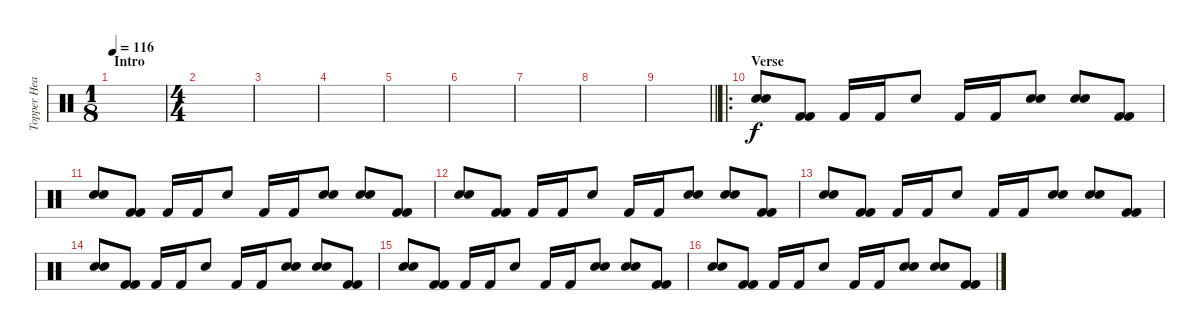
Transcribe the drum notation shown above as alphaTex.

\track ("Topper Headon - Percussion" "Topper Hea") {instrument percussion}
\staff {score}
\articulation defaults
\ts (1 8)
\section ("" "Intro")
\tempo 116
\clef neutral
\ks c
|
\ts (4 4)
|
|
|
|
|
|
|
\barLineRight lightlight
|
\ro
\section ("" "Verse")
("Snare (hit) 2" "Snare (hit) 2").8 ("Kick (hit) 2" "Kick (hit) 2").8 "Kick (hit) 2".16 "Kick (hit) 2".16 "Snare (hit) 2".8 "Kick (hit) 2".16 "Kick (hit) 2".16 ("Snare (hit) 2" "Snare (hit) 2").8 ("Snare (hit) 2" "Snare (hit) 2").8 ("Kick (hit) 2" "Kick (hit) 2").8 |
("Snare (hit) 2" "Snare (hit) 2").8 ("Kick (hit) 2" "Kick (hit) 2").8 "Kick (hit) 2".16 "Kick (hit) 2".16 "Snare (hit) 2".8 "Kick (hit) 2".16 "Kick (hit) 2".16 ("Snare (hit) 2" "Snare (hit) 2").8 ("Snare (hit) 2" "Snare (hit) 2").8 ("Kick (hit) 2" "Kick (hit) 2").8 |
("Snare (hit) 2" "Snare (hit) 2").8 ("Kick (hit) 2" "Kick (hit) 2").8 "Kick (hit) 2".16 "Kick (hit) 2".16 "Snare (hit) 2".8 "Kick (hit) 2".16 "Kick (hit) 2".16 ("Snare (hit) 2" "Snare (hit) 2").8 ("Snare (hit) 2" "Snare (hit) 2").8 ("Kick (hit) 2" "Kick (hit) 2").8 |
("Snare (hit) 2" "Snare (hit) 2").8 ("Kick (hit) 2" "Kick (hit) 2").8 "Kick (hit) 2".16 "Kick (hit) 2".16 "Snare (hit) 2".8 "Kick (hit) 2".16 "Kick (hit) 2".16 ("Snare (hit) 2" "Snare (hit) 2").8 ("Snare (hit) 2" "Snare (hit) 2").8 ("Kick (hit) 2" "Kick (hit) 2").8 |
("Snare (hit) 2" "Snare (hit) 2").8 ("Kick (hit) 2" "Kick (hit) 2").8 "Kick (hit) 2".16 "Kick (hit) 2".16 "Snare (hit) 2".8 "Kick (hit) 2".16 "Kick (hit) 2".16 ("Snare (hit) 2" "Snare (hit) 2").8 ("Snare (hit) 2" "Snare (hit) 2").8 ("Kick (hit) 2" "Kick (hit) 2").8 |
("Snare (hit) 2" "Snare (hit) 2").8 ("Kick (hit) 2" "Kick (hit) 2").8 "Kick (hit) 2".16 "Kick (hit) 2".16 "Snare (hit) 2".8 "Kick (hit) 2".16 "Kick (hit) 2".16 ("Snare (hit) 2" "Snare (hit) 2").8 ("Snare (hit) 2" "Snare (hit) 2").8 ("Kick (hit) 2" "Kick (hit) 2").8 |
("Snare (hit) 2" "Snare (hit) 2").8 ("Kick (hit) 2" "Kick (hit) 2").8 "Kick (hit) 2".16 "Kick (hit) 2".16 "Snare (hit) 2".8 "Kick (hit) 2".16 "Kick (hit) 2".16 ("Snare (hit) 2" "Snare (hit) 2").8 ("Snare (hit) 2" "Snare (hit) 2").8 ("Kick (hit) 2" "Kick (hit) 2").8
